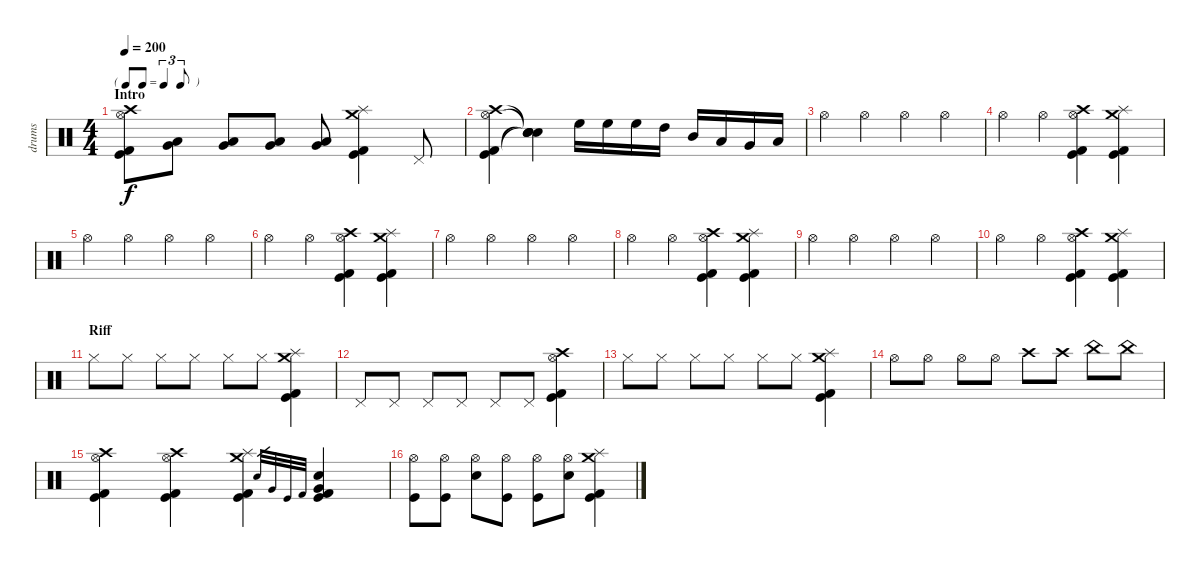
\track ("drums" "drums") {instrument percussion}
\staff {score}
\articulation defaults
\ts (4 4)
\tf triplet8th
\section ("" "Intro")
\tempo 200
\clef neutral
\ks c
("Crash high (hit)" "Hi-Hat (open)" "Kick (hit)" "Kick (hit) 2").8{dy f} ("Very Low Tom (hit)" "Low Floor Tom (hit)").8 ("Very Low Tom (hit)" "Low Floor Tom (hit)").8 ("Very Low Tom (hit)" "Low Floor Tom (hit)").8 ("Very Low Tom (hit)" "Low Floor Tom (hit)").8 ("Crash medium (hit)" "Splash (hit)" "Kick (hit)" "Kick (hit) 2").4 "Pedal Hi-Hat (hit)".8 |
("Crash high (hit)" "Hi-Hat (open)" "Kick (hit)" "Kick (hit) 2").4 ("Snare (hit)"{t} "Snare (hit)"{t} "Snare (hit)"{t} "Snare (hit)"{t}).4 "High Floor Tom (hit)".16 "High Floor Tom (hit)".16 "High Floor Tom (hit)".16 "High Tom (hit)".16 "Mid Tom (hit)".16 "Low Tom (hit)".16 "Very Low Tom (hit)".16 "Low Floor Tom (hit)".16 |
"Hi-Hat (open)".4 "Hi-Hat (open)".4 "Hi-Hat (open)".4 "Hi-Hat (open)".4 |
"Hi-Hat (open)".4 "Hi-Hat (open)".4 ("Crash high (hit)" "Hi-Hat (open)" "Kick (hit)" "Kick (hit) 2").4 ("Crash medium (hit)" "Splash (hit)" "Kick (hit) 2" "Kick (hit)").4 |
"Hi-Hat (open)".4 "Hi-Hat (open)".4 "Hi-Hat (open)".4 "Hi-Hat (open)".4 |
"Hi-Hat (open)".4 "Hi-Hat (open)".4 ("Crash high (hit)" "Hi-Hat (open)" "Kick (hit)" "Kick (hit) 2").4 ("Crash medium (hit)" "Splash (hit)" "Kick (hit) 2" "Kick (hit)").4 |
"Hi-Hat (open)".4 "Hi-Hat (open)".4 "Hi-Hat (open)".4 "Hi-Hat (open)".4 |
"Hi-Hat (open)".4 "Hi-Hat (open)".4 ("Crash high (hit)" "Hi-Hat (open)" "Kick (hit)" "Kick (hit) 2").4 ("Crash medium (hit)" "Splash (hit)" "Kick (hit) 2" "Kick (hit)").4 |
"Hi-Hat (open)".4 "Hi-Hat (open)".4 "Hi-Hat (open)".4 "Hi-Hat (open)".4 |
"Hi-Hat (open)".4 "Hi-Hat (open)".4 ("Crash high (hit)" "Hi-Hat (open)" "Kick (hit)" "Kick (hit) 2").4 ("Crash medium (hit)" "Splash (hit)" "Kick (hit) 2" "Kick (hit)").4 |
\section ("" "Riff")
"Hi-Hat (closed)".8 "Hi-Hat (closed)".8 "Hi-Hat (closed)".8 "Hi-Hat (closed)".8 "Hi-Hat (closed)".8 "Hi-Hat (closed)".8 ("Crash medium (hit)" "Splash (hit)" "Kick (hit)" "Kick (hit) 2").4 |
"Pedal Hi-Hat (hit)".8 "Pedal Hi-Hat (hit)".8 "Pedal Hi-Hat (hit)".8 "Pedal Hi-Hat (hit)".8 "Pedal Hi-Hat (hit)".8 "Pedal Hi-Hat (hit)".8 ("Crash high (hit)" "Hi-Hat (open)" "Kick (hit)" "Kick (hit) 2").4 |
"Hi-Hat (closed)".8 "Hi-Hat (closed)".8 "Hi-Hat (closed)".8 "Hi-Hat (closed)".8 "Hi-Hat (closed)".8 "Hi-Hat (closed)".8 ("Crash medium (hit)" "Splash (hit)" "Kick (hit)" "Kick (hit) 2").4 |
"Hi-Hat (open)".8 "Hi-Hat (open)".8 "Hi-Hat (open)".8 "Hi-Hat (open)".8 "Crash high (hit)".8 "Crash high (hit)".8 "China (hit)".8 "China (hit)".8 |
("Crash high (hit)" "Hi-Hat (open)" "Kick (hit)" "Kick (hit) 2").4 ("Crash high (hit)" "Hi-Hat (open)" "Kick (hit)" "Kick (hit) 2").4 ("Crash medium (hit)" "Splash (hit)" "Kick (hit) 2" "Kick (hit)").4 "Electric Snare (hit)".32{gr} "Very Low Tom (hit)".32{gr} "Kick (hit)".32{gr} "Kick (hit) 2".32{gr} ("Electric Snare (hit)" "Very Low Tom (hit)" "Kick (hit)" "Kick (hit) 2").4 |
("Hi-Hat (open)" "Kick (hit)").8 ("Hi-Hat (open)" "Kick (hit)").8 ("Hi-Hat (open)" "Snare (hit) 2").8 ("Hi-Hat (open)" "Kick (hit)").8 ("Hi-Hat (open)" "Kick (hit)").8 ("Hi-Hat (open)" "Snare (hit) 2").8 ("Crash medium (hit)" "Splash (hit)" "Kick (hit)" "Kick (hit) 2").4
